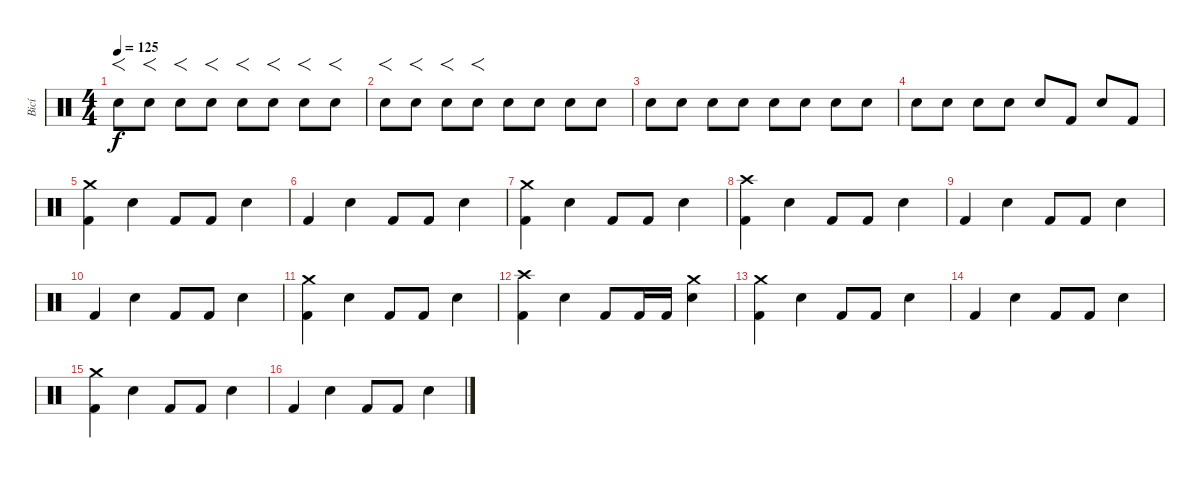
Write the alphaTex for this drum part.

\track ("Bicí" "Bicí") {instrument percussion}
\staff {score}
\articulation defaults
\ts (4 4)
\tempo 125
\clef neutral
\ks c "Electric Snare (hit)".8{f dy f} "Electric Snare (hit)".8{f} "Electric Snare (hit)".8{f} "Electric Snare (hit)".8{f} "Electric Snare (hit)".8{f} "Electric Snare (hit)".8{f} "Electric Snare (hit)".8{f} "Electric Snare (hit)".8{f}
|
"Electric Snare (hit)".8{f} "Electric Snare (hit)".8{f} "Electric Snare (hit)".8{f} "Electric Snare (hit)".8{f} "Electric Snare (hit)".8 "Electric Snare (hit)".8 "Electric Snare (hit)".8 "Electric Snare (hit)".8 |
"Electric Snare (hit)".8 "Electric Snare (hit)".8 "Electric Snare (hit)".8 "Electric Snare (hit)".8 "Electric Snare (hit)".8 "Electric Snare (hit)".8 "Electric Snare (hit)".8 "Electric Snare (hit)".8 |
"Electric Snare (hit)".8 "Electric Snare (hit)".8 "Electric Snare (hit)".8 "Electric Snare (hit)".8 "Electric Snare (hit)".8 "Kick (hit) 2".8 "Electric Snare (hit)".8 "Kick (hit) 2".8 |
("Crash medium (hit)" "Kick (hit) 2").4 "Electric Snare (hit)".4 "Kick (hit) 2".8 "Kick (hit) 2".8 "Electric Snare (hit)".4 |
"Kick (hit) 2".4 "Electric Snare (hit)".4 "Kick (hit) 2".8 "Kick (hit) 2".8 "Electric Snare (hit)".4 |
("Crash medium (hit)" "Kick (hit) 2").4 "Electric Snare (hit)".4 "Kick (hit) 2".8 "Kick (hit) 2".8 "Electric Snare (hit)".4 |
("Crash high (hit)" "Kick (hit) 2").4 "Electric Snare (hit)".4 "Kick (hit) 2".8 "Kick (hit) 2".8 "Electric Snare (hit)".4 |
"Kick (hit) 2".4 "Electric Snare (hit)".4 "Kick (hit) 2".8 "Kick (hit) 2".8 "Electric Snare (hit)".4 |
"Kick (hit) 2".4 "Electric Snare (hit)".4 "Kick (hit) 2".8 "Kick (hit) 2".8 "Electric Snare (hit)".4 |
("Crash medium (hit)" "Kick (hit) 2").4 "Electric Snare (hit)".4 "Kick (hit) 2".8 "Kick (hit) 2".8 "Electric Snare (hit)".4 |
("Crash high (hit)" "Kick (hit) 2").4 "Electric Snare (hit)".4 "Kick (hit) 2".8 "Kick (hit) 2".16 "Kick (hit) 2".16 ("Crash medium (hit)" "Electric Snare (hit)").4 |
("Crash medium (hit)" "Kick (hit) 2").4 "Electric Snare (hit)".4 "Kick (hit) 2".8 "Kick (hit) 2".8 "Electric Snare (hit)".4 |
"Kick (hit) 2".4 "Electric Snare (hit)".4 "Kick (hit) 2".8 "Kick (hit) 2".8 "Electric Snare (hit)".4 |
("Crash medium (hit)" "Kick (hit) 2").4 "Electric Snare (hit)".4 "Kick (hit) 2".8 "Kick (hit) 2".8 "Electric Snare (hit)".4 |
"Kick (hit) 2".4 "Electric Snare (hit)".4 "Kick (hit) 2".8 "Kick (hit) 2".8 "Electric Snare (hit)".4
